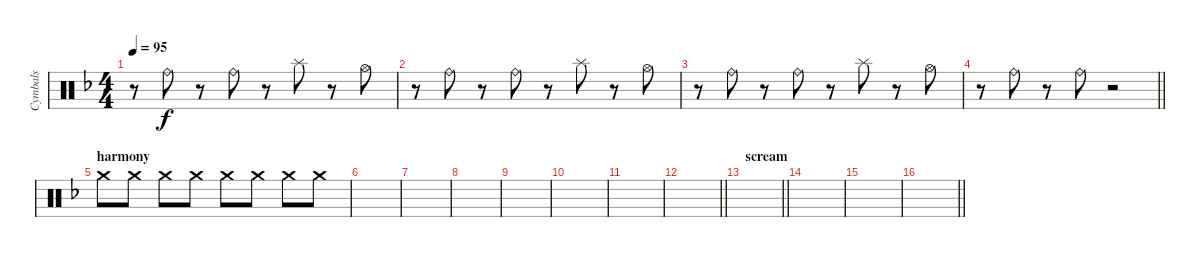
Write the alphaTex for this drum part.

\track ("Cymbals" "Cymbals") {instrument percussion}
\staff {score}
\articulation defaults
\ts (4 4)
\tempo 95
\clef neutral
\ks dminor
r.8{dy f} "Ride (bell)".8 r.8 "Ride (bell)".8 r.8 "Splash (hit)".8 r.8 "Hi-Hat (open)".8 |
r.8 "Ride (bell)".8 r.8 "Ride (bell)".8 r.8 "Splash (hit)".8 r.8 "Hi-Hat (open)".8 |
r.8 "Ride (bell)".8 r.8 "Ride (bell)".8 r.8 "Splash (hit)".8 r.8 "Hi-Hat (open)".8 |
\barLineRight lightlight
r.8 "Ride (bell)".8 r.8 "Ride (bell)".8 r.2 |
\section ("" "harmony ")
"Crash medium (hit)".8 "Crash medium (hit)".8 "Crash medium (hit)".8 "Crash medium (hit)".8 "Crash medium (hit)".8 "Crash medium (hit)".8 "Crash medium (hit)".8 "Crash medium (hit)".8 |
|
|
|
|
|
|
\barLineRight lightlight
|
\section ("" "scream")
\barLineRight lightlight
|
|
|
\barLineRight lightlight
